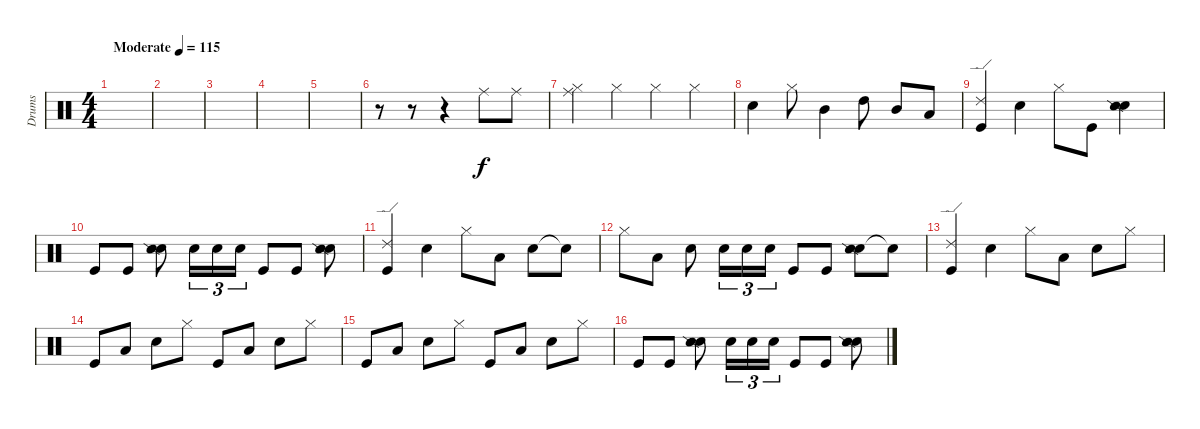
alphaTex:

\track ("Drums" "Drums") {instrument percussion}
\staff {score}
\articulation defaults
\ts (4 4)
\tempo (115 "Moderate")
\clef neutral
\ks c
|
|
|
|
|
r.8 r.8 r.4 "Ride (middle)".8 "Ride (middle)".8 |
("Ride (middle)" "Hi-Hat (closed)").4{volume 3} "Hi-Hat (closed)".4 "Hi-Hat (closed)".4 "Hi-Hat (closed)".4 |
"Snare (hit) 2".4{volume 13} "Hi-Hat (closed)".8 "Mid Tom (hit)".4 "High Tom (hit)".8 "Mid Tom (hit)".8 "Low Tom (hit)".8 |
("Kick (hit)" "Ride (edge) 2").4 "Snare (hit) 2".4 "Hi-Hat (closed)".8 "Kick (hit)".8 ("Snare (hit) 2" "Snare (side stick) 2").4 |
"Kick (hit)".8 "Kick (hit)".8 ("Snare (hit) 2" "Snare (side stick) 2").8 "Snare (hit) 2".16{tu (3 2) volume 3} "Snare (hit) 2".16{tu (3 2)} "Snare (hit) 2".16{tu (3 2)} "Kick (hit)".8{volume 13} "Kick (hit)".8 ("Snare (hit) 2" "Snare (side stick) 2").8 |
("Kick (hit)" "Ride (edge) 2").4 "Snare (hit) 2".4 "Hi-Hat (closed)".8 "Low Floor Tom (hit)".8 "Snare (hit) 2".8 "Snare (hit)"{t}.8 |
"Hi-Hat (closed)".8 "Low Floor Tom (hit)".8 "Snare (hit) 2".8 "Snare (hit) 2".16{tu (3 2) volume 3} "Snare (hit) 2".16{tu (3 2)} "Snare (hit) 2".16{tu (3 2)} "Kick (hit)".8{volume 13} "Kick (hit)".8 ("Snare (hit) 2" "Snare (side stick) 2").8 "Snare (hit)"{t}.8 |
("Kick (hit)" "Ride (edge) 2").4 "Snare (hit) 2".4 "Hi-Hat (closed)".8 "Low Floor Tom (hit)".8 "Electric Snare (hit)".8 "Hi-Hat (closed)".8 |
"Kick (hit)".8 "Low Floor Tom (hit)".8 "Electric Snare (hit)".8 "Hi-Hat (closed)".8 "Kick (hit)".8 "Low Floor Tom (hit)".8 "Electric Snare (hit)".8 "Hi-Hat (closed)".8 |
"Kick (hit)".8 "Low Floor Tom (hit)".8 "Electric Snare (hit)".8 "Hi-Hat (closed)".8 "Kick (hit)".8 "Low Floor Tom (hit)".8 "Electric Snare (hit)".8 "Hi-Hat (closed)".8 |
"Kick (hit)".8 "Kick (hit)".8 ("Snare (hit) 2" "Snare (side stick) 2").8 "Snare (hit) 2".16{tu (3 2) volume 3} "Snare (hit) 2".16{tu (3 2)} "Snare (hit) 2".16{tu (3 2)} "Kick (hit)".8{volume 13} "Kick (hit)".8 ("Snare (hit) 2" "Snare (side stick) 2").8
